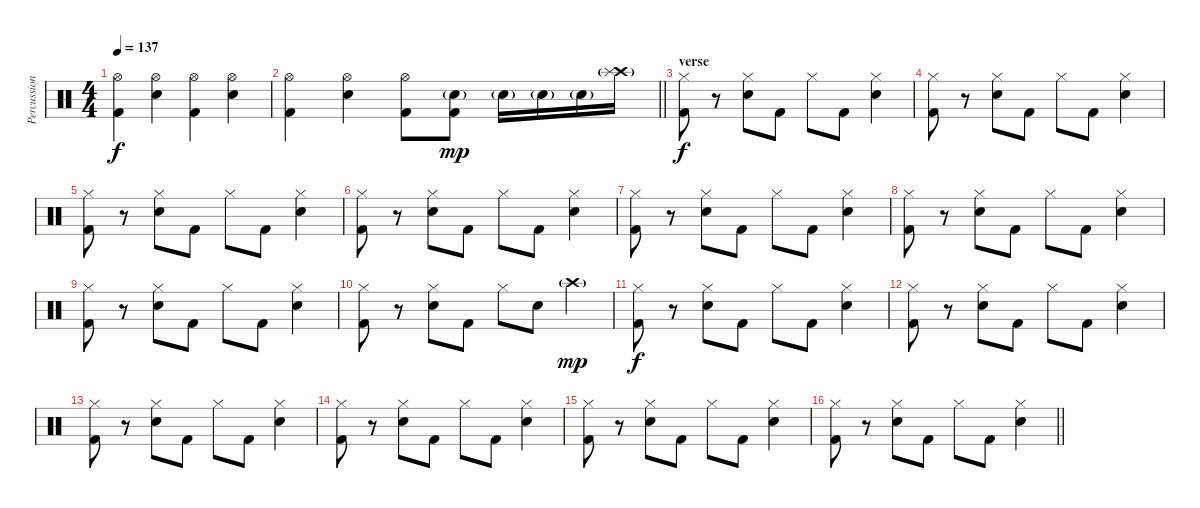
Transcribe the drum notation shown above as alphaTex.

\track ("Percussion" "Percussion") {instrument percussion}
\staff {score}
\articulation defaults
\ts (4 4)
\tempo 137
\clef neutral
\ks c
("Hi-Hat (open)" "Kick (hit) 2").4{dy f} ("Hi-Hat (open)" "Snare (hit) 2").4 ("Hi-Hat (open)" "Kick (hit) 2").4 ("Hi-Hat (open)" "Snare (hit) 2").4 |
\barLineRight lightlight
("Hi-Hat (open)" "Kick (hit) 2").4 ("Hi-Hat (open)" "Snare (hit) 2").4 ("Hi-Hat (open)" "Kick (hit) 2").8 ("Snare (hit) 2"{g} "Kick (hit) 2").8{dy mp} "Snare (hit) 2"{g}.16 "Snare (hit) 2"{g}.16 "Snare (hit) 2"{g}.16 ("Crash high (hit)"{g} "Splash (hit)").16 |
\section ("" "verse")
("Hi-Hat (closed)" "Kick (hit) 2").8{dy f} r.8 ("Hi-Hat (closed)" "Snare (hit) 2").8 "Kick (hit) 2".8 "Hi-Hat (closed)".8 "Kick (hit) 2".8 ("Hi-Hat (closed)" "Snare (hit) 2").4 |
("Hi-Hat (closed)" "Kick (hit) 2").8 r.8 ("Hi-Hat (closed)" "Snare (hit) 2").8 "Kick (hit) 2".8 "Hi-Hat (closed)".8 "Kick (hit) 2".8 ("Hi-Hat (closed)" "Snare (hit) 2").4 |
("Hi-Hat (closed)" "Kick (hit) 2").8 r.8 ("Hi-Hat (closed)" "Snare (hit) 2").8 "Kick (hit) 2".8 "Hi-Hat (closed)".8 "Kick (hit) 2".8 ("Hi-Hat (closed)" "Snare (hit) 2").4 |
("Hi-Hat (closed)" "Kick (hit) 2").8 r.8 ("Hi-Hat (closed)" "Snare (hit) 2").8 "Kick (hit) 2".8 "Hi-Hat (closed)".8 "Kick (hit) 2".8 ("Hi-Hat (closed)" "Snare (hit) 2").4 |
("Hi-Hat (closed)" "Kick (hit) 2").8 r.8 ("Hi-Hat (closed)" "Snare (hit) 2").8 "Kick (hit) 2".8 "Hi-Hat (closed)".8 "Kick (hit) 2".8 ("Hi-Hat (closed)" "Snare (hit) 2").4 |
("Hi-Hat (closed)" "Kick (hit) 2").8 r.8 ("Hi-Hat (closed)" "Snare (hit) 2").8 "Kick (hit) 2".8 "Hi-Hat (closed)".8 "Kick (hit) 2".8 ("Hi-Hat (closed)" "Snare (hit) 2").4 |
("Hi-Hat (closed)" "Kick (hit) 2").8 r.8 ("Hi-Hat (closed)" "Snare (hit) 2").8 "Kick (hit) 2".8 "Hi-Hat (closed)".8 "Kick (hit) 2".8 ("Hi-Hat (closed)" "Snare (hit) 2").4 |
("Hi-Hat (closed)" "Kick (hit) 2").8 r.8 ("Hi-Hat (closed)" "Snare (hit) 2").8 "Kick (hit) 2".8 "Hi-Hat (closed)".8 "Snare (hit) 2".8 "Crash high (hit)"{g}.4{dy mp} |
("Hi-Hat (closed)" "Kick (hit) 2").8{dy f} r.8 ("Hi-Hat (closed)" "Snare (hit) 2").8 "Kick (hit) 2".8 "Hi-Hat (closed)".8 "Kick (hit) 2".8 ("Hi-Hat (closed)" "Snare (hit) 2").4 |
("Hi-Hat (closed)" "Kick (hit) 2").8 r.8 ("Hi-Hat (closed)" "Snare (hit) 2").8 "Kick (hit) 2".8 "Hi-Hat (closed)".8 "Kick (hit) 2".8 ("Hi-Hat (closed)" "Snare (hit) 2").4 |
("Hi-Hat (closed)" "Kick (hit) 2").8 r.8 ("Hi-Hat (closed)" "Snare (hit) 2").8 "Kick (hit) 2".8 "Hi-Hat (closed)".8 "Kick (hit) 2".8 ("Hi-Hat (closed)" "Snare (hit) 2").4 |
("Hi-Hat (closed)" "Kick (hit) 2").8 r.8 ("Hi-Hat (closed)" "Snare (hit) 2").8 "Kick (hit) 2".8 "Hi-Hat (closed)".8 "Kick (hit) 2".8 ("Hi-Hat (closed)" "Snare (hit) 2").4 |
("Hi-Hat (closed)" "Kick (hit) 2").8 r.8 ("Hi-Hat (closed)" "Snare (hit) 2").8 "Kick (hit) 2".8 "Hi-Hat (closed)".8 "Kick (hit) 2".8 ("Hi-Hat (closed)" "Snare (hit) 2").4 |
\barLineRight lightlight
("Hi-Hat (closed)" "Kick (hit) 2").8 r.8 ("Hi-Hat (closed)" "Snare (hit) 2").8 "Kick (hit) 2".8 "Hi-Hat (closed)".8 "Kick (hit) 2".8 ("Hi-Hat (closed)" "Snare (hit) 2").4
